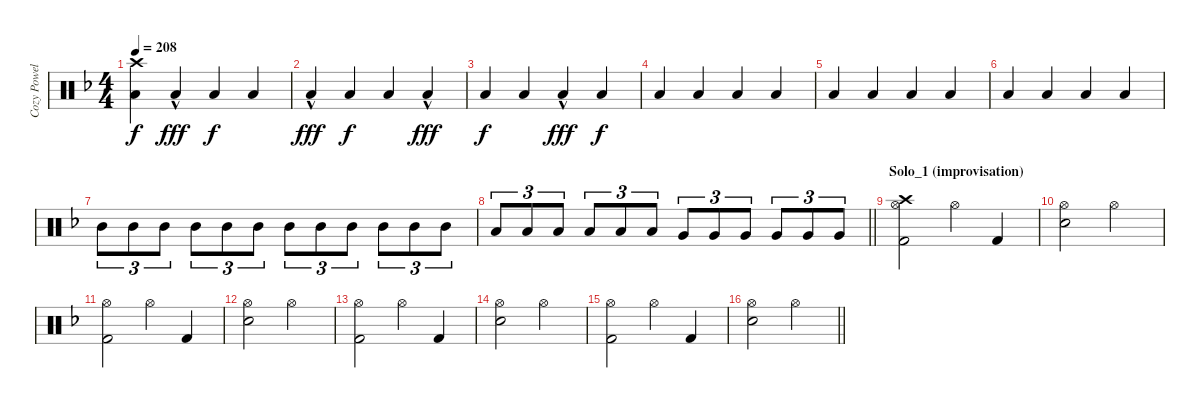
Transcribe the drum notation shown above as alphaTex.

\track ("Cozy Powell" "Cozy Powel") {instrument percussion}
\staff {score}
\articulation defaults
\ts (4 4)
\tempo 208
\clef neutral
\ks f
("Low Tom (hit)" "Crash high (hit)").4{dy f volume 13} "Low Tom (hit)"{hac}.4{dy fff} "Low Tom (hit)".4{dy f} "Low Tom (hit)".4 |
"Low Tom (hit)"{hac}.4{dy fff} "Low Tom (hit)".4{dy f} "Low Tom (hit)".4 "Low Tom (hit)"{hac}.4{dy fff} |
"Low Tom (hit)".4{dy f} "Low Tom (hit)".4 "Low Tom (hit)"{hac}.4{dy fff} "Low Tom (hit)".4{dy f} |
"Low Tom (hit)".4 "Low Tom (hit)".4 "Low Tom (hit)".4 "Low Tom (hit)".4 |
"Low Tom (hit)".4{volume 10} "Low Tom (hit)".4 "Low Tom (hit)".4 "Low Tom (hit)".4 |
"Low Tom (hit)".4 "Low Tom (hit)".4 "Low Tom (hit)".4 "Low Tom (hit)".4 |
"Mid Tom (hit)".8{tu (3 2) volume 13} "Mid Tom (hit)".8{tu (3 2)} "Mid Tom (hit)".8{tu (3 2)} "Mid Tom (hit)".8{tu (3 2)} "Mid Tom (hit)".8{tu (3 2)} "Mid Tom (hit)".8{tu (3 2)} "Mid Tom (hit)".8{tu (3 2)} "Mid Tom (hit)".8{tu (3 2)} "Mid Tom (hit)".8{tu (3 2)} "Mid Tom (hit)".8{tu (3 2)} "Mid Tom (hit)".8{tu (3 2)} "Mid Tom (hit)".8{tu (3 2)} |
\barLineRight lightlight "Low Tom (hit)".8{tu (3 2)} "Low Tom (hit)".8{tu (3 2)} "Low Tom (hit)".8{tu (3 2)} "Low Tom (hit)".8{tu (3 2)} "Low Tom (hit)".8{tu (3 2)} "Low Tom (hit)".8{tu (3 2)} "Very Low Tom (hit)".8{tu (3 2)} "Very Low Tom (hit)".8{tu (3 2)} "Very Low Tom (hit)".8{tu (3 2)} "Very Low Tom (hit)".8{tu (3 2)} "Very Low Tom (hit)".8{tu (3 2)} "Very Low Tom (hit)".8{tu (3 2)}
|
\section ("" "Solo_1 (improvisation)")
("Hi-Hat (open)" "Kick (hit) 2" "Crash high (hit)").2 "Hi-Hat (open)".4 "Kick (hit) 2".4 |
("Hi-Hat (open)" "Snare (hit) 2").2 "Hi-Hat (open)".2 |
("Hi-Hat (open)" "Kick (hit) 2").2 "Hi-Hat (open)".4 "Kick (hit) 2".4 |
("Hi-Hat (open)" "Snare (hit) 2").2 "Hi-Hat (open)".2 |
("Hi-Hat (open)" "Kick (hit) 2").2 "Hi-Hat (open)".4 "Kick (hit) 2".4 |
("Hi-Hat (open)" "Snare (hit) 2").2 "Hi-Hat (open)".2 |
("Hi-Hat (open)" "Kick (hit) 2").2 "Hi-Hat (open)".4 "Kick (hit) 2".4 |
\barLineRight lightlight
("Hi-Hat (open)" "Snare (hit) 2").2 "Hi-Hat (open)".2
